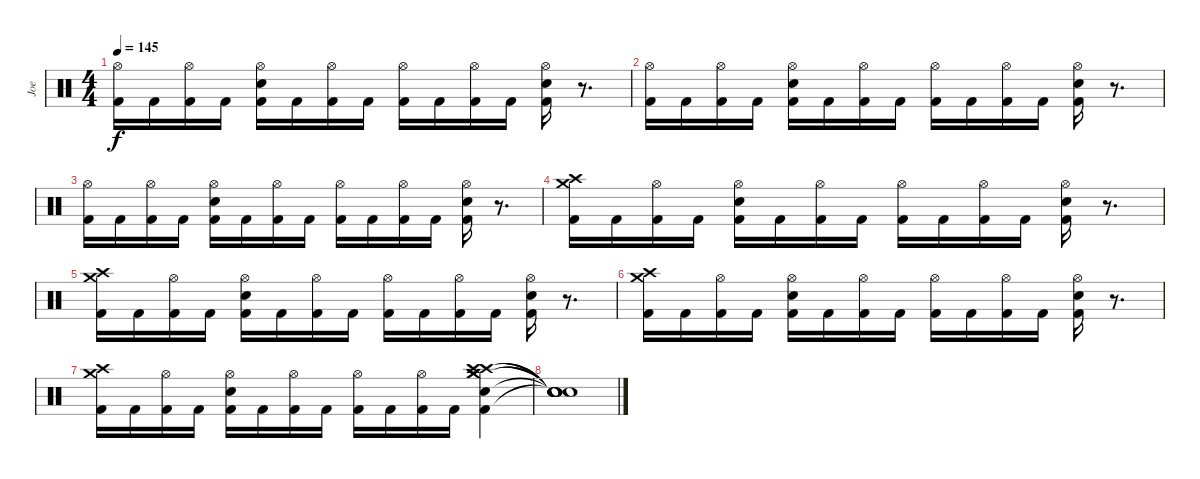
\track ("Joe" "Joe") {instrument percussion}
\staff {score}
\articulation defaults
\ts (4 4)
\tempo 145
\clef neutral
\ks c
("Hi-Hat (open)" "Kick (hit) 2").16{dy f} "Kick (hit) 2".16 ("Hi-Hat (open)" "Kick (hit) 2").16 "Kick (hit) 2".16 ("Hi-Hat (open)" "Snare (hit) 2" "Kick (hit) 2").16 "Kick (hit) 2".16 ("Hi-Hat (open)" "Kick (hit) 2").16 "Kick (hit) 2".16 ("Hi-Hat (open)" "Kick (hit) 2").16 "Kick (hit) 2".16 ("Hi-Hat (open)" "Kick (hit) 2").16 "Kick (hit) 2".16 ("Hi-Hat (open)" "Snare (hit) 2" "Kick (hit) 2").16 r.8{d} |
("Hi-Hat (open)" "Kick (hit) 2").16 "Kick (hit) 2".16 ("Hi-Hat (open)" "Kick (hit) 2").16 "Kick (hit) 2".16 ("Hi-Hat (open)" "Snare (hit) 2" "Kick (hit) 2").16 "Kick (hit) 2".16 ("Hi-Hat (open)" "Kick (hit) 2").16 "Kick (hit) 2".16 ("Hi-Hat (open)" "Kick (hit) 2").16 "Kick (hit) 2".16 ("Hi-Hat (open)" "Kick (hit) 2").16 "Kick (hit) 2".16 ("Hi-Hat (open)" "Snare (hit) 2" "Kick (hit) 2").16 r.8{d} |
("Hi-Hat (open)" "Kick (hit) 2").16 "Kick (hit) 2".16 ("Hi-Hat (open)" "Kick (hit) 2").16 "Kick (hit) 2".16 ("Hi-Hat (open)" "Snare (hit) 2" "Kick (hit) 2").16 "Kick (hit) 2".16 ("Hi-Hat (open)" "Kick (hit) 2").16 "Kick (hit) 2".16 ("Hi-Hat (open)" "Kick (hit) 2").16 "Kick (hit) 2".16 ("Hi-Hat (open)" "Kick (hit) 2").16 "Kick (hit) 2".16 ("Hi-Hat (open)" "Snare (hit) 2" "Kick (hit) 2").16 r.8{d} |
("Crash medium (hit)" "Crash high (hit)" "Kick (hit) 2").16 "Kick (hit) 2".16 ("Hi-Hat (open)" "Kick (hit) 2").16 "Kick (hit) 2".16 ("Hi-Hat (open)" "Snare (hit) 2" "Kick (hit) 2").16 "Kick (hit) 2".16 ("Hi-Hat (open)" "Kick (hit) 2").16 "Kick (hit) 2".16 ("Hi-Hat (open)" "Kick (hit) 2").16 "Kick (hit) 2".16 ("Hi-Hat (open)" "Kick (hit) 2").16 "Kick (hit) 2".16 ("Hi-Hat (open)" "Snare (hit) 2" "Kick (hit) 2").16 r.8{d} |
("Crash medium (hit)" "Crash high (hit)" "Kick (hit) 2").16 "Kick (hit) 2".16 ("Hi-Hat (open)" "Kick (hit) 2").16 "Kick (hit) 2".16 ("Hi-Hat (open)" "Snare (hit) 2" "Kick (hit) 2").16 "Kick (hit) 2".16 ("Hi-Hat (open)" "Kick (hit) 2").16 "Kick (hit) 2".16 ("Hi-Hat (open)" "Kick (hit) 2").16 "Kick (hit) 2".16 ("Hi-Hat (open)" "Kick (hit) 2").16 "Kick (hit) 2".16 ("Hi-Hat (open)" "Snare (hit) 2" "Kick (hit) 2").16 r.8{d} |
("Crash medium (hit)" "Crash high (hit)" "Kick (hit) 2").16 "Kick (hit) 2".16 ("Hi-Hat (open)" "Kick (hit) 2").16 "Kick (hit) 2".16 ("Hi-Hat (open)" "Snare (hit) 2" "Kick (hit) 2").16 "Kick (hit) 2".16 ("Hi-Hat (open)" "Kick (hit) 2").16 "Kick (hit) 2".16 ("Hi-Hat (open)" "Kick (hit) 2").16 "Kick (hit) 2".16 ("Hi-Hat (open)" "Kick (hit) 2").16 "Kick (hit) 2".16 ("Hi-Hat (open)" "Snare (hit) 2" "Kick (hit) 2").16 r.8{d} |
("Crash medium (hit)" "Crash high (hit)" "Kick (hit) 2").16 "Kick (hit) 2".16 ("Hi-Hat (open)" "Kick (hit) 2").16 "Kick (hit) 2".16 ("Hi-Hat (open)" "Snare (hit) 2" "Kick (hit) 2").16 "Kick (hit) 2".16 ("Hi-Hat (open)" "Kick (hit) 2").16 "Kick (hit) 2".16 ("Hi-Hat (open)" "Kick (hit) 2").16 "Kick (hit) 2".16 ("Hi-Hat (open)" "Kick (hit) 2").16 "Kick (hit) 2".16 ("Crash high (hit)" "Crash high (hit)" "Crash medium (hit)" "Crash medium (hit)" "Snare (hit) 2" "Kick (hit) 2").4 |
("Snare (hit)"{t} "Snare (hit)"{t} "Snare (hit)"{t} "Snare (hit)"{t} "Snare (hit)"{t} "Snare (hit)"{t}).1
